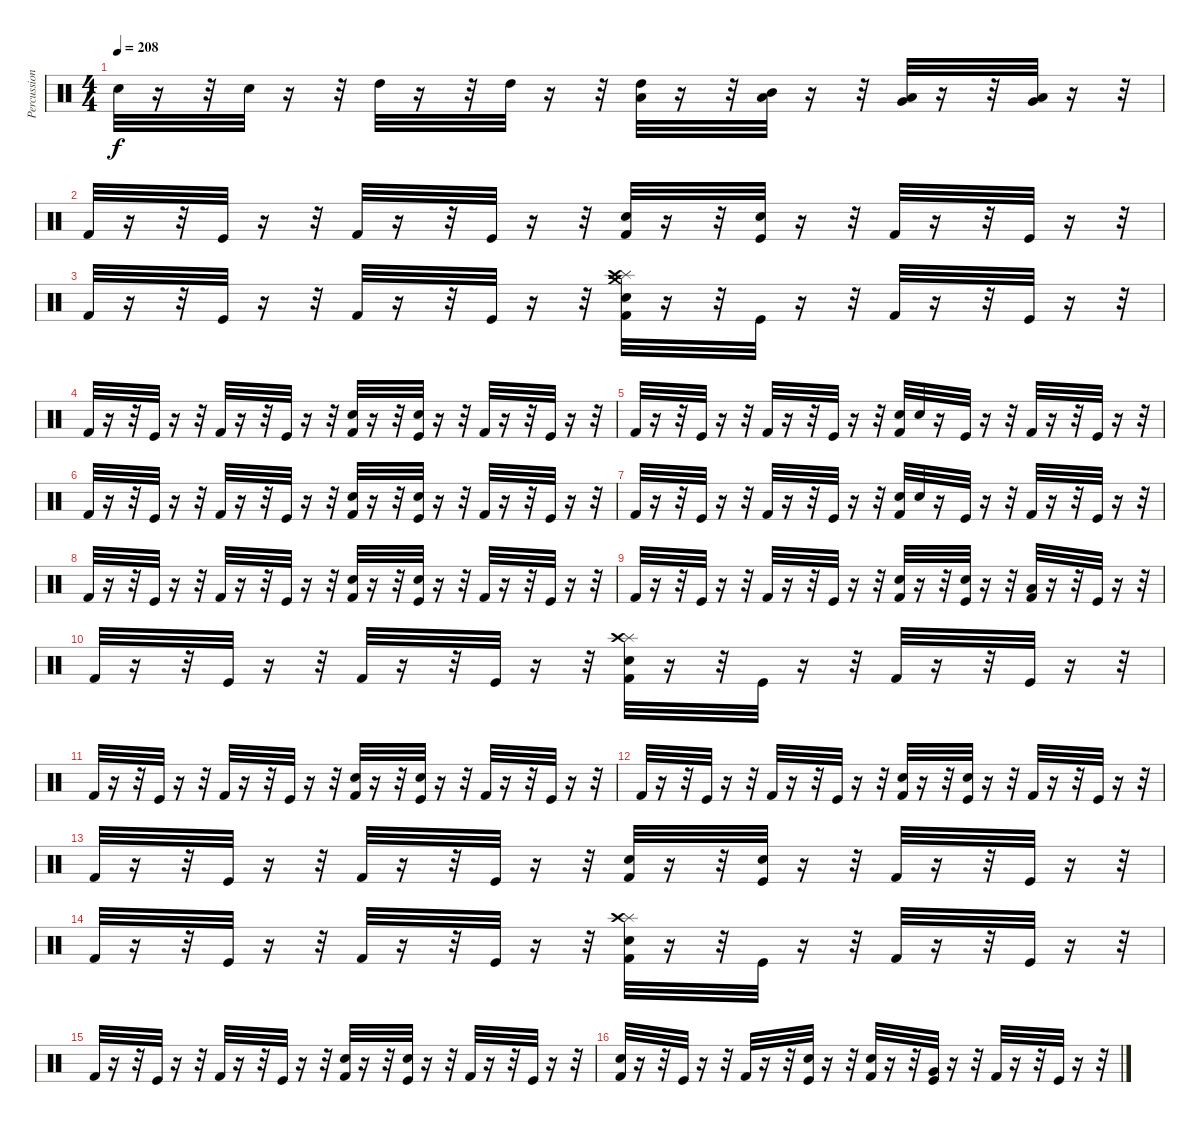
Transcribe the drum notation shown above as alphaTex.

\track ("Percussion" "Percussion") {instrument percussion}
\staff {score}
\articulation defaults
\ts (4 4)
\tempo 208
\clef neutral
\ks c "Snare (hit) 2".32{dy f}
r.16 r.32 "Snare (hit) 2".32 r.16 r.32 "High Tom (hit)".32 r.16 r.32 "High Tom (hit)".32 r.16 r.32 ("Low Tom (hit)" "High Tom (hit)").32 r.16 r.32 ("Low Tom (hit)" "Mid Tom (hit)").32 r.16 r.32 ("Low Tom (hit)" "Very Low Tom (hit)").32 r.16 r.32 ("Low Floor Tom (hit)" "Very Low Tom (hit)").32 r.16 r.32 |
"Kick (hit) 2".32 r.16 r.32 "Kick (hit)".32 r.16 r.32 "Kick (hit) 2".32 r.16 r.32 "Kick (hit)".32 r.16 r.32 ("Snare (hit) 2" "Kick (hit) 2").32 r.16 r.32 ("Snare (hit) 2" "Kick (hit)").32 r.16 r.32 "Kick (hit) 2".32 r.16 r.32 "Kick (hit)".32 r.16 r.32 |
"Kick (hit) 2".32 r.16 r.32 "Kick (hit)".32 r.16 r.32 "Kick (hit) 2".32 r.16 r.32 "Kick (hit)".32 r.16 r.32 ("Crash medium (hit)" "Splash (hit)" "Crash high (hit)" "Snare (hit) 2" "Kick (hit) 2").32 r.16 r.32 "Kick (hit)".32 r.16 r.32 "Kick (hit) 2".32 r.16 r.32 "Kick (hit)".32 r.16 r.32 |
"Kick (hit) 2".32 r.16 r.32 "Kick (hit)".32 r.16 r.32 "Kick (hit) 2".32 r.16 r.32 "Kick (hit)".32 r.16 r.32 ("Snare (hit) 2" "Kick (hit) 2").32 r.16 r.32 ("Snare (hit) 2" "Kick (hit)").32 r.16 r.32 "Kick (hit) 2".32 r.16 r.32 "Kick (hit)".32 r.16 r.32 |
"Kick (hit) 2".32 r.16 r.32 "Kick (hit)".32 r.16 r.32 "Kick (hit) 2".32 r.16 r.32 "Kick (hit)".32 r.16 r.32 ("Snare (hit) 2" "Kick (hit) 2").32 "Snare (hit) 2".32 r.16 "Kick (hit)".32 r.16 r.32 "Kick (hit) 2".32 r.16 r.32 "Kick (hit)".32 r.16 r.32 |
"Kick (hit) 2".32 r.16 r.32 "Kick (hit)".32 r.16 r.32 "Kick (hit) 2".32 r.16 r.32 "Kick (hit)".32 r.16 r.32 ("Snare (hit) 2" "Kick (hit) 2").32 r.16 r.32 ("Snare (hit) 2" "Kick (hit)").32 r.16 r.32 "Kick (hit) 2".32 r.16 r.32 "Kick (hit)".32 r.16 r.32 |
"Kick (hit) 2".32 r.16 r.32 "Kick (hit)".32 r.16 r.32 "Kick (hit) 2".32 r.16 r.32 "Kick (hit)".32 r.16 r.32 ("Snare (hit) 2" "Kick (hit) 2").32 "Snare (hit) 2".32 r.16 "Kick (hit)".32 r.16 r.32 "Kick (hit) 2".32 r.16 r.32 "Kick (hit)".32 r.16 r.32 |
"Kick (hit) 2".32 r.16 r.32 "Kick (hit)".32 r.16 r.32 "Kick (hit) 2".32 r.16 r.32 "Kick (hit)".32 r.16 r.32 ("Snare (hit) 2" "Kick (hit) 2").32 r.16 r.32 ("Snare (hit) 2" "Kick (hit)").32 r.16 r.32 "Kick (hit) 2".32 r.16 r.32 "Kick (hit)".32 r.16 r.32 |
"Kick (hit) 2".32 r.16 r.32 "Kick (hit)".32 r.16 r.32 "Kick (hit) 2".32 r.16 r.32 "Kick (hit)".32 r.16 r.32 ("Snare (hit) 2" "Kick (hit) 2").32 r.16 r.32 ("Snare (hit) 2" "Kick (hit)").32 r.16 r.32 ("Low Tom (hit)" "Kick (hit) 2").32 r.16 r.32 "Kick (hit)".32 r.16 r.32 |
"Kick (hit) 2".32 r.16 r.32 "Kick (hit)".32 r.16 r.32 "Kick (hit) 2".32 r.16 r.32 "Kick (hit)".32 r.16 r.32 ("Splash (hit)" "Crash high (hit)" "Snare (hit) 2" "Kick (hit) 2").32 r.16 r.32 "Kick (hit)".32 r.16 r.32 "Kick (hit) 2".32 r.16 r.32 "Kick (hit)".32 r.16 r.32 |
"Kick (hit) 2".32 r.16 r.32 "Kick (hit)".32 r.16 r.32 "Kick (hit) 2".32 r.16 r.32 "Kick (hit)".32 r.16 r.32 ("Snare (hit) 2" "Kick (hit) 2").32 r.16 r.32 ("Snare (hit) 2" "Kick (hit)").32 r.16 r.32 "Kick (hit) 2".32 r.16 r.32 "Kick (hit)".32 r.16 r.32 |
"Kick (hit) 2".32 r.16 r.32 "Kick (hit)".32 r.16 r.32 "Kick (hit) 2".32 r.16 r.32 "Kick (hit)".32 r.16 r.32 ("Snare (hit) 2" "Kick (hit) 2").32 r.16 r.32 ("Snare (hit) 2" "Kick (hit)").32 r.16 r.32 "Kick (hit) 2".32 r.16 r.32 "Kick (hit)".32 r.16 r.32 |
"Kick (hit) 2".32 r.16 r.32 "Kick (hit)".32 r.16 r.32 "Kick (hit) 2".32 r.16 r.32 "Kick (hit)".32 r.16 r.32 ("Snare (hit) 2" "Kick (hit) 2").32 r.16 r.32 ("Snare (hit) 2" "Kick (hit)").32 r.16 r.32 "Kick (hit) 2".32 r.16 r.32 "Kick (hit)".32 r.16 r.32 |
"Kick (hit) 2".32 r.16 r.32 "Kick (hit)".32 r.16 r.32 "Kick (hit) 2".32 r.16 r.32 "Kick (hit)".32 r.16 r.32 ("Splash (hit)" "Crash high (hit)" "Snare (hit) 2" "Kick (hit) 2").32 r.16 r.32 "Kick (hit)".32 r.16 r.32 "Kick (hit) 2".32 r.16 r.32 "Kick (hit)".32 r.16 r.32 |
"Kick (hit) 2".32 r.16 r.32 "Kick (hit)".32 r.16 r.32 "Kick (hit) 2".32 r.16 r.32 "Kick (hit)".32 r.16 r.32 ("Snare (hit) 2" "Kick (hit) 2").32 r.16 r.32 ("Snare (hit) 2" "Kick (hit)").32 r.16 r.32 "Kick (hit) 2".32 r.16 r.32 "Kick (hit)".32 r.16 r.32 |
("Snare (hit) 2" "Kick (hit) 2").32 r.16 r.32 "Kick (hit)".32 r.16 r.32 "Kick (hit) 2".32 r.16 r.32 ("Snare (hit) 2" "Kick (hit)").32 r.16 r.32 ("Snare (hit) 2" "Kick (hit) 2").32 r.16 r.32 ("Very Low Tom (hit)" "Kick (hit)").32 r.16 r.32 "Kick (hit) 2".32 r.16 r.32 "Kick (hit)".32 r.16 r.32
